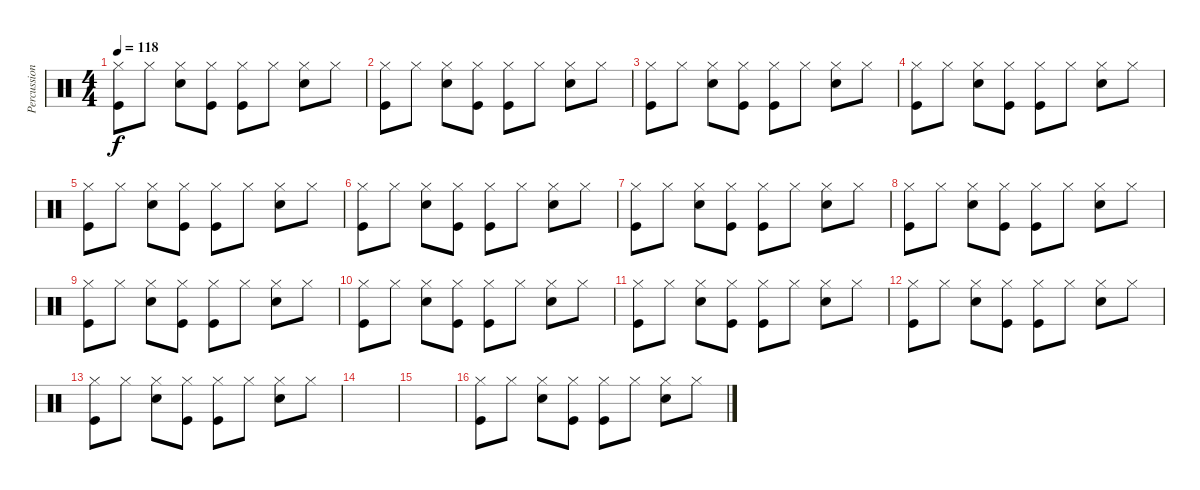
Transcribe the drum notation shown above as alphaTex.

\track ("Percussions" "Percussion") {instrument percussion}
\staff {score}
\articulation defaults
\ts (4 4)
\tempo 118
\clef neutral
\ks c
("Hi-Hat (closed)" "Kick (hit)").8{dy f} "Hi-Hat (closed)".8 ("Hi-Hat (closed)" "Snare (hit) 2").8 ("Hi-Hat (closed)" "Kick (hit)").8 ("Hi-Hat (closed)" "Kick (hit)").8 "Hi-Hat (closed)".8 ("Hi-Hat (closed)" "Snare (hit) 2").8 "Hi-Hat (closed)".8 |
("Hi-Hat (closed)" "Kick (hit)").8 "Hi-Hat (closed)".8 ("Hi-Hat (closed)" "Snare (hit) 2").8 ("Hi-Hat (closed)" "Kick (hit)").8 ("Hi-Hat (closed)" "Kick (hit)").8 "Hi-Hat (closed)".8 ("Hi-Hat (closed)" "Snare (hit) 2").8 "Hi-Hat (closed)".8 |
("Hi-Hat (closed)" "Kick (hit)").8 "Hi-Hat (closed)".8 ("Hi-Hat (closed)" "Snare (hit) 2").8 ("Hi-Hat (closed)" "Kick (hit)").8 ("Hi-Hat (closed)" "Kick (hit)").8 "Hi-Hat (closed)".8 ("Hi-Hat (closed)" "Snare (hit) 2").8 "Hi-Hat (closed)".8 |
("Hi-Hat (closed)" "Kick (hit)").8 "Hi-Hat (closed)".8 ("Hi-Hat (closed)" "Snare (hit) 2").8 ("Hi-Hat (closed)" "Kick (hit)").8 ("Hi-Hat (closed)" "Kick (hit)").8 "Hi-Hat (closed)".8 ("Hi-Hat (closed)" "Snare (hit) 2").8 "Hi-Hat (closed)".8 |
("Hi-Hat (closed)" "Kick (hit)").8 "Hi-Hat (closed)".8 ("Hi-Hat (closed)" "Snare (hit) 2").8 ("Hi-Hat (closed)" "Kick (hit)").8 ("Hi-Hat (closed)" "Kick (hit)").8 "Hi-Hat (closed)".8 ("Hi-Hat (closed)" "Snare (hit) 2").8 "Hi-Hat (closed)".8 |
("Hi-Hat (closed)" "Kick (hit)").8 "Hi-Hat (closed)".8 ("Hi-Hat (closed)" "Snare (hit) 2").8 ("Hi-Hat (closed)" "Kick (hit)").8 ("Hi-Hat (closed)" "Kick (hit)").8 "Hi-Hat (closed)".8 ("Hi-Hat (closed)" "Snare (hit) 2").8 "Hi-Hat (closed)".8 |
("Hi-Hat (closed)" "Kick (hit)").8 "Hi-Hat (closed)".8 ("Hi-Hat (closed)" "Snare (hit) 2").8 ("Hi-Hat (closed)" "Kick (hit)").8 ("Hi-Hat (closed)" "Kick (hit)").8 "Hi-Hat (closed)".8 ("Hi-Hat (closed)" "Snare (hit) 2").8 "Hi-Hat (closed)".8 |
("Hi-Hat (closed)" "Kick (hit)").8 "Hi-Hat (closed)".8 ("Hi-Hat (closed)" "Snare (hit) 2").8 ("Hi-Hat (closed)" "Kick (hit)").8 ("Hi-Hat (closed)" "Kick (hit)").8 "Hi-Hat (closed)".8 ("Hi-Hat (closed)" "Snare (hit) 2").8 "Hi-Hat (closed)".8 |
("Hi-Hat (closed)" "Kick (hit)").8 "Hi-Hat (closed)".8 ("Hi-Hat (closed)" "Snare (hit) 2").8 ("Hi-Hat (closed)" "Kick (hit)").8 ("Hi-Hat (closed)" "Kick (hit)").8 "Hi-Hat (closed)".8 ("Hi-Hat (closed)" "Snare (hit) 2").8 "Hi-Hat (closed)".8 |
("Hi-Hat (closed)" "Kick (hit)").8 "Hi-Hat (closed)".8 ("Hi-Hat (closed)" "Snare (hit) 2").8 ("Hi-Hat (closed)" "Kick (hit)").8 ("Hi-Hat (closed)" "Kick (hit)").8 "Hi-Hat (closed)".8 ("Hi-Hat (closed)" "Snare (hit) 2").8 "Hi-Hat (closed)".8 |
("Hi-Hat (closed)" "Kick (hit)").8 "Hi-Hat (closed)".8 ("Hi-Hat (closed)" "Snare (hit) 2").8 ("Hi-Hat (closed)" "Kick (hit)").8 ("Hi-Hat (closed)" "Kick (hit)").8 "Hi-Hat (closed)".8 ("Hi-Hat (closed)" "Snare (hit) 2").8 "Hi-Hat (closed)".8 |
("Hi-Hat (closed)" "Kick (hit)").8 "Hi-Hat (closed)".8 ("Hi-Hat (closed)" "Snare (hit) 2").8 ("Hi-Hat (closed)" "Kick (hit)").8 ("Hi-Hat (closed)" "Kick (hit)").8 "Hi-Hat (closed)".8 ("Hi-Hat (closed)" "Snare (hit) 2").8 "Hi-Hat (closed)".8 |
("Hi-Hat (closed)" "Kick (hit)").8 "Hi-Hat (closed)".8 ("Hi-Hat (closed)" "Snare (hit) 2").8 ("Hi-Hat (closed)" "Kick (hit)").8 ("Hi-Hat (closed)" "Kick (hit)").8 "Hi-Hat (closed)".8 ("Hi-Hat (closed)" "Snare (hit) 2").8 "Hi-Hat (closed)".8 |
|
|
("Hi-Hat (closed)" "Kick (hit)").8 "Hi-Hat (closed)".8 ("Hi-Hat (closed)" "Snare (hit) 2").8 ("Hi-Hat (closed)" "Kick (hit)").8 ("Hi-Hat (closed)" "Kick (hit)").8 "Hi-Hat (closed)".8 ("Hi-Hat (closed)" "Snare (hit) 2").8 "Hi-Hat (closed)".8
